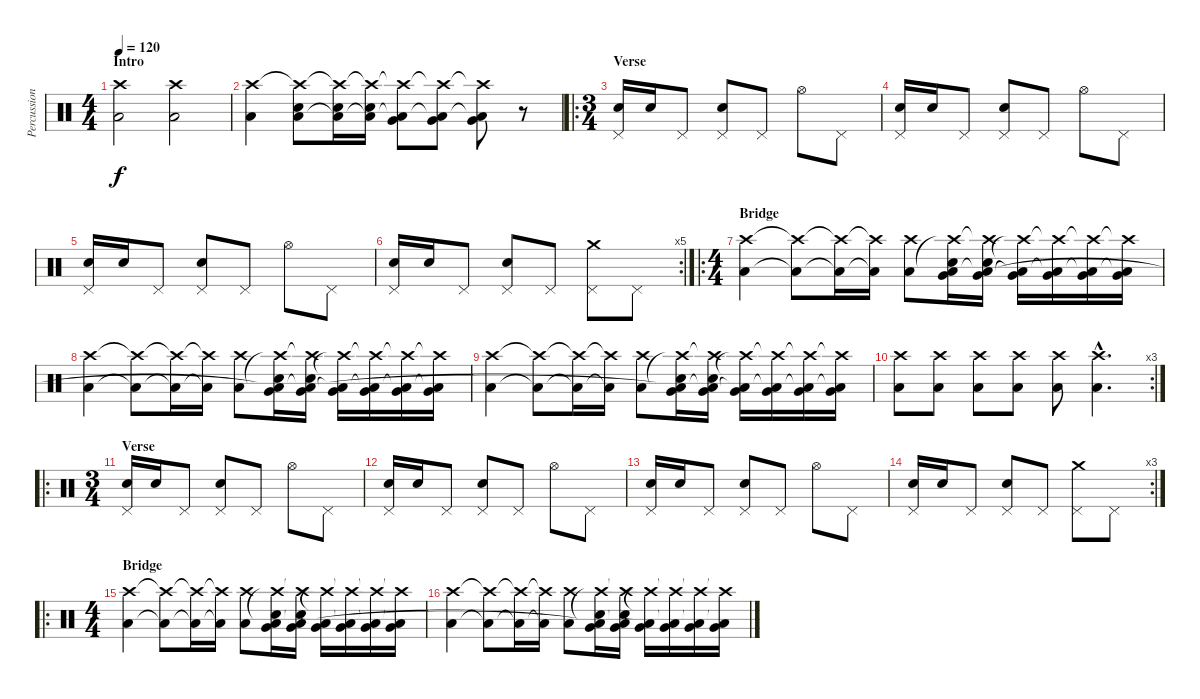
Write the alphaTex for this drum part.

\track ("Percussion" "Percussion") {instrument percussion}
\staff {score}
\articulation defaults
\ts (4 4)
\section ("" "Intro")
\tempo 120
\clef neutral
\ks c
("Crash high (hit)" "Low Floor Tom (hit)").2{dy f} ("Crash high (hit)" "Low Floor Tom (hit)").2 |
("Crash high (hit)" "Low Floor Tom (hit)").4 ("Crash high (hit)"{t} "Electric Snare (hit)" "Low Floor Tom (hit)").8 ("Crash high (hit)"{t} "Electric Snare (hit)" "Low Floor Tom (hit)"{t}).16 ("Crash high (hit)"{t} "Electric Snare (hit)" "Low Floor Tom (hit)"{t}).16 ("Crash high (hit)"{t} "Very Low Tom (hit)" "Low Floor Tom (hit)"{t}).8 ("Crash high (hit)"{t} "Very Low Tom (hit)" "Low Floor Tom (hit)"{t}).8 ("Crash high (hit)"{t} "Very Low Tom (hit)" "Low Floor Tom (hit)"{t}).8 r.8 |
\ro
\ts (3 4)
\section ("" "Verse")
("Electric Snare (hit)" "Pedal Hi-Hat (hit)").16 "Electric Snare (hit)".16 "Pedal Hi-Hat (hit)".8 ("Electric Snare (hit)" "Pedal Hi-Hat (hit)").8 "Pedal Hi-Hat (hit)".8 "Hi-Hat (open)".8 "Pedal Hi-Hat (hit)".8 |
("Electric Snare (hit)" "Pedal Hi-Hat (hit)").16 "Electric Snare (hit)".16 "Pedal Hi-Hat (hit)".8 ("Electric Snare (hit)" "Pedal Hi-Hat (hit)").8 "Pedal Hi-Hat (hit)".8 "Hi-Hat (open)".8 "Pedal Hi-Hat (hit)".8 |
("Electric Snare (hit)" "Pedal Hi-Hat (hit)").16 "Electric Snare (hit)".16 "Pedal Hi-Hat (hit)".8 ("Electric Snare (hit)" "Pedal Hi-Hat (hit)").8 "Pedal Hi-Hat (hit)".8 "Hi-Hat (open)".8 "Pedal Hi-Hat (hit)".8 |
\rc 5
("Electric Snare (hit)" "Pedal Hi-Hat (hit)").16 "Electric Snare (hit)".16 "Pedal Hi-Hat (hit)".8 ("Electric Snare (hit)" "Pedal Hi-Hat (hit)").8 "Pedal Hi-Hat (hit)".8 ("Crash medium (hit)" "Pedal Hi-Hat (hit)").8 "Pedal Hi-Hat (hit)".8 |
\ro
\ts (4 4)
\section ("" "Bridge")
("Crash high (hit)" "Low Floor Tom (hit)").4 ("Crash high (hit)"{t} "Low Floor Tom (hit)"{t}).8 ("Crash high (hit)"{t} "Low Floor Tom (hit)"{t}).16 ("Crash high (hit)"{t} "Low Floor Tom (hit)"{t}).16 ("Crash high (hit)" "Low Floor Tom (hit)").8 ("Electric Snare (hit)" "Crash high (hit)"{t} "Very Low Tom (hit)" "Low Floor Tom (hit)").16 ("Electric Snare (hit)" "Crash high (hit)"{t} "Very Low Tom (hit)" "Low Floor Tom (hit)"{t}).16 ("Crash high (hit)"{t} "Very Low Tom (hit)" "Low Floor Tom (hit)"{t}).16 ("Crash high (hit)"{t} "Very Low Tom (hit)" "Low Floor Tom (hit)"{t}).16 ("Crash high (hit)"{t} "Very Low Tom (hit)" "Low Floor Tom (hit)"{t}).16 ("Crash high (hit)"{t} "Very Low Tom (hit)" "Low Floor Tom (hit)"{t}).16 |
("Crash high (hit)" "Low Floor Tom (hit)").4 ("Crash high (hit)"{t} "Low Floor Tom (hit)"{t}).8 ("Crash high (hit)"{t} "Low Floor Tom (hit)"{t}).16 ("Crash high (hit)"{t} "Low Floor Tom (hit)"{t}).16 ("Crash high (hit)" "Low Floor Tom (hit)").8 ("Electric Snare (hit)" "Crash high (hit)"{t} "Very Low Tom (hit)" "Low Floor Tom (hit)"{t}).16 ("Electric Snare (hit)" "Crash high (hit)"{t} "Very Low Tom (hit)" "Low Floor Tom (hit)"{t}).16 ("Crash high (hit)"{t} "Very Low Tom (hit)" "Low Floor Tom (hit)"{t}).16 ("Crash high (hit)"{t} "Very Low Tom (hit)" "Low Floor Tom (hit)"{t}).16 ("Crash high (hit)"{t} "Very Low Tom (hit)" "Low Floor Tom (hit)"{t}).16 ("Crash high (hit)"{t} "Very Low Tom (hit)" "Low Floor Tom (hit)"{t}).16 |
("Crash high (hit)" "Low Floor Tom (hit)").4 ("Crash high (hit)"{t} "Low Floor Tom (hit)"{t}).8 ("Crash high (hit)"{t} "Low Floor Tom (hit)"{t}).16 ("Crash high (hit)"{t} "Low Floor Tom (hit)"{t}).16 ("Crash high (hit)" "Low Floor Tom (hit)").8 ("Electric Snare (hit)" "Crash high (hit)"{t} "Very Low Tom (hit)" "Low Floor Tom (hit)"{t}).16 ("Electric Snare (hit)" "Crash high (hit)"{t} "Very Low Tom (hit)" "Low Floor Tom (hit)"{t}).16 ("Crash high (hit)"{t} "Very Low Tom (hit)" "Low Floor Tom (hit)"{t}).16 ("Crash high (hit)"{t} "Very Low Tom (hit)" "Low Floor Tom (hit)"{t}).16 ("Crash high (hit)"{t} "Very Low Tom (hit)" "Low Floor Tom (hit)"{t}).16 ("Crash high (hit)"{t} "Very Low Tom (hit)" "Low Floor Tom (hit)"{t}).16 |
\rc 3
("Crash high (hit)" "Low Floor Tom (hit)").8 ("Crash high (hit)" "Low Floor Tom (hit)").8 ("Crash high (hit)" "Low Floor Tom (hit)").8 ("Crash high (hit)" "Low Floor Tom (hit)").8 ("Crash high (hit)" "Low Floor Tom (hit)").8 ("Crash high (hit)"{hac} "Low Floor Tom (hit)"{hac}).4{d} |
\ro
\ts (3 4)
\section ("" "Verse")
("Electric Snare (hit)" "Pedal Hi-Hat (hit)").16 "Electric Snare (hit)".16 "Pedal Hi-Hat (hit)".8 ("Electric Snare (hit)" "Pedal Hi-Hat (hit)").8 "Pedal Hi-Hat (hit)".8 "Hi-Hat (open)".8 "Pedal Hi-Hat (hit)".8 |
("Electric Snare (hit)" "Pedal Hi-Hat (hit)").16 "Electric Snare (hit)".16 "Pedal Hi-Hat (hit)".8 ("Electric Snare (hit)" "Pedal Hi-Hat (hit)").8 "Pedal Hi-Hat (hit)".8 "Hi-Hat (open)".8 "Pedal Hi-Hat (hit)".8 |
("Electric Snare (hit)" "Pedal Hi-Hat (hit)").16 "Electric Snare (hit)".16 "Pedal Hi-Hat (hit)".8 ("Electric Snare (hit)" "Pedal Hi-Hat (hit)").8 "Pedal Hi-Hat (hit)".8 "Hi-Hat (open)".8 "Pedal Hi-Hat (hit)".8 |
\rc 3
("Electric Snare (hit)" "Pedal Hi-Hat (hit)").16 "Electric Snare (hit)".16 "Pedal Hi-Hat (hit)".8 ("Electric Snare (hit)" "Pedal Hi-Hat (hit)").8 "Pedal Hi-Hat (hit)".8 ("Crash medium (hit)" "Pedal Hi-Hat (hit)").8 "Pedal Hi-Hat (hit)".8 |
\ro
\ts (4 4)
\section ("" "Bridge")
("Crash high (hit)" "Low Floor Tom (hit)").4 ("Crash high (hit)"{t} "Low Floor Tom (hit)"{t}).8 ("Crash high (hit)"{t} "Low Floor Tom (hit)"{t}).16 ("Crash high (hit)"{t} "Low Floor Tom (hit)"{t}).16 ("Crash high (hit)" "Low Floor Tom (hit)").8 ("Electric Snare (hit)" "Crash high (hit)"{t} "Very Low Tom (hit)" "Low Floor Tom (hit)").16 ("Electric Snare (hit)" "Crash high (hit)"{t} "Very Low Tom (hit)" "Low Floor Tom (hit)"{t}).16 ("Crash high (hit)"{t} "Very Low Tom (hit)" "Low Floor Tom (hit)"{t}).16 ("Crash high (hit)"{t} "Very Low Tom (hit)" "Low Floor Tom (hit)"{t}).16 ("Crash high (hit)"{t} "Very Low Tom (hit)" "Low Floor Tom (hit)"{t}).16 ("Crash high (hit)"{t} "Very Low Tom (hit)" "Low Floor Tom (hit)"{t}).16 |
("Crash high (hit)" "Low Floor Tom (hit)").4 ("Crash high (hit)"{t} "Low Floor Tom (hit)"{t}).8 ("Crash high (hit)"{t} "Low Floor Tom (hit)"{t}).16 ("Crash high (hit)"{t} "Low Floor Tom (hit)"{t}).16 ("Crash high (hit)" "Low Floor Tom (hit)").8 ("Electric Snare (hit)" "Crash high (hit)"{t} "Very Low Tom (hit)" "Low Floor Tom (hit)"{t}).16 ("Electric Snare (hit)" "Crash high (hit)"{t} "Very Low Tom (hit)" "Low Floor Tom (hit)"{t}).16 ("Crash high (hit)"{t} "Very Low Tom (hit)" "Low Floor Tom (hit)"{t}).16 ("Crash high (hit)"{t} "Very Low Tom (hit)" "Low Floor Tom (hit)"{t}).16 ("Crash high (hit)"{t} "Very Low Tom (hit)" "Low Floor Tom (hit)"{t}).16 ("Crash high (hit)"{t} "Very Low Tom (hit)" "Low Floor Tom (hit)"{t}).16
